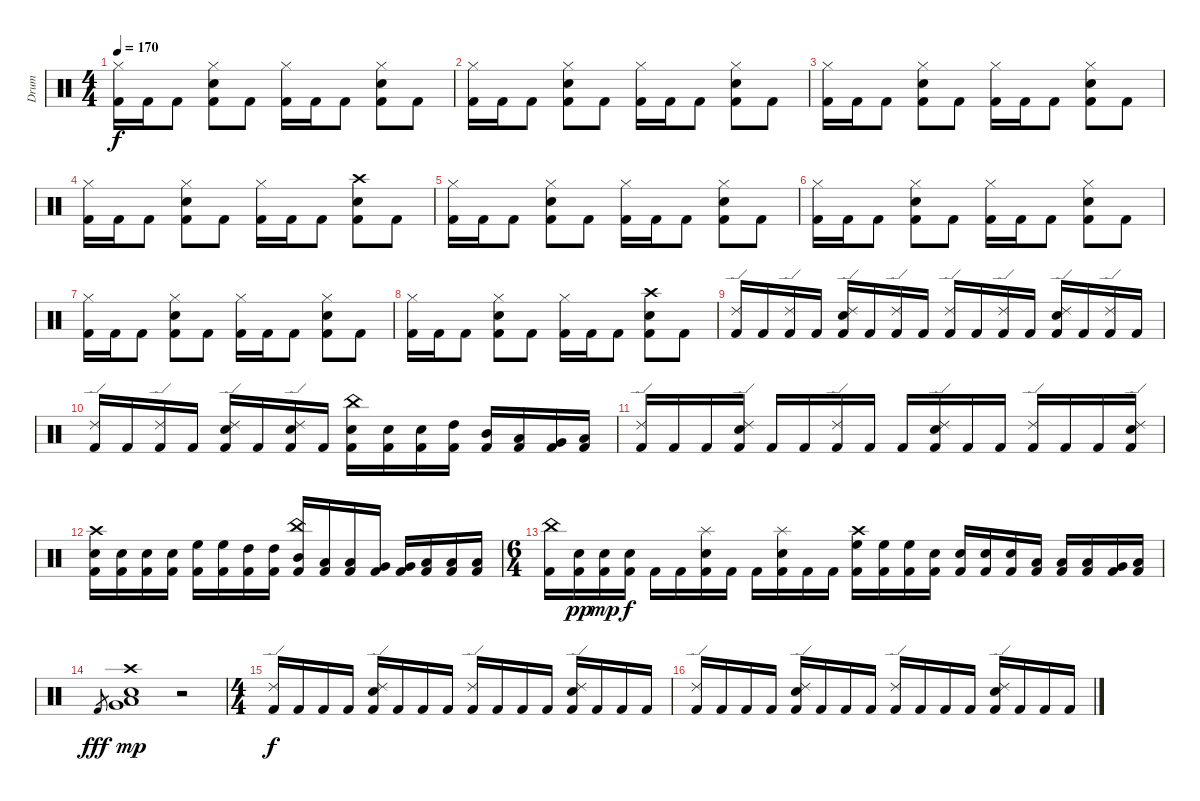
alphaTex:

\track ("Drum" "Drum") {instrument percussion}
\staff {score}
\articulation defaults
\ts (4 4)
\tempo 170
\clef neutral
\ks c
("Hi-Hat (closed)" "Kick (hit) 2").16{dy f} "Kick (hit) 2".16 "Kick (hit) 2".8 ("Hi-Hat (closed)" "Snare (hit) 2" "Kick (hit) 2").8 "Kick (hit) 2".8 ("Hi-Hat (closed)" "Kick (hit) 2").16 "Kick (hit) 2".16 "Kick (hit) 2".8 ("Hi-Hat (closed)" "Snare (hit) 2" "Kick (hit) 2").8 "Kick (hit) 2".8 |
("Hi-Hat (closed)" "Kick (hit) 2").16 "Kick (hit) 2".16 "Kick (hit) 2".8 ("Hi-Hat (closed)" "Snare (hit) 2" "Kick (hit) 2").8 "Kick (hit) 2".8 ("Hi-Hat (closed)" "Kick (hit) 2").16 "Kick (hit) 2".16 "Kick (hit) 2".8 ("Hi-Hat (closed)" "Snare (hit) 2" "Kick (hit) 2").8 "Kick (hit) 2".8 |
("Hi-Hat (closed)" "Kick (hit) 2").16 "Kick (hit) 2".16 "Kick (hit) 2".8 ("Hi-Hat (closed)" "Snare (hit) 2" "Kick (hit) 2").8 "Kick (hit) 2".8 ("Hi-Hat (closed)" "Kick (hit) 2").16 "Kick (hit) 2".16 "Kick (hit) 2".8 ("Hi-Hat (closed)" "Snare (hit) 2" "Kick (hit) 2").8 "Kick (hit) 2".8 |
("Hi-Hat (closed)" "Kick (hit) 2").16 "Kick (hit) 2".16 "Kick (hit) 2".8 ("Hi-Hat (closed)" "Snare (hit) 2" "Kick (hit) 2").8 "Kick (hit) 2".8 ("Hi-Hat (closed)" "Kick (hit) 2").16 "Kick (hit) 2".16 "Kick (hit) 2".8 ("Crash high (hit)" "Snare (hit) 2" "Kick (hit) 2").8 "Kick (hit) 2".8 |
("Hi-Hat (closed)" "Kick (hit) 2").16 "Kick (hit) 2".16 "Kick (hit) 2".8 ("Hi-Hat (closed)" "Snare (hit) 2" "Kick (hit) 2").8 "Kick (hit) 2".8 ("Hi-Hat (closed)" "Kick (hit) 2").16 "Kick (hit) 2".16 "Kick (hit) 2".8 ("Hi-Hat (closed)" "Snare (hit) 2" "Kick (hit) 2").8 "Kick (hit) 2".8 |
("Hi-Hat (closed)" "Kick (hit) 2").16 "Kick (hit) 2".16 "Kick (hit) 2".8 ("Hi-Hat (closed)" "Snare (hit) 2" "Kick (hit) 2").8 "Kick (hit) 2".8 ("Hi-Hat (closed)" "Kick (hit) 2").16 "Kick (hit) 2".16 "Kick (hit) 2".8 ("Hi-Hat (closed)" "Snare (hit) 2" "Kick (hit) 2").8 "Kick (hit) 2".8 |
("Hi-Hat (closed)" "Kick (hit) 2").16 "Kick (hit) 2".16 "Kick (hit) 2".8 ("Hi-Hat (closed)" "Snare (hit) 2" "Kick (hit) 2").8 "Kick (hit) 2".8 ("Hi-Hat (closed)" "Kick (hit) 2").16 "Kick (hit) 2".16 "Kick (hit) 2".8 ("Hi-Hat (closed)" "Snare (hit) 2" "Kick (hit) 2").8 "Kick (hit) 2".8 |
("Hi-Hat (closed)" "Kick (hit) 2").16 "Kick (hit) 2".16 "Kick (hit) 2".8 ("Hi-Hat (closed)" "Snare (hit) 2" "Kick (hit) 2").8 "Kick (hit) 2".8 ("Hi-Hat (closed)" "Kick (hit) 2").16 "Kick (hit) 2".16 "Kick (hit) 2".8 ("Crash high (hit)" "Snare (hit) 2" "Kick (hit) 2").8 "Kick (hit) 2".8 |
("Ride (edge) 2" "Kick (hit) 2").16 "Kick (hit) 2".16 ("Ride (edge) 2" "Kick (hit) 2").16 "Kick (hit) 2".16 ("Ride (edge) 2" "Snare (hit) 2" "Kick (hit) 2").16 "Kick (hit) 2".16 ("Ride (edge) 2" "Kick (hit) 2").16 "Kick (hit) 2".16 ("Ride (edge) 2" "Kick (hit) 2").16 "Kick (hit) 2".16 ("Ride (edge) 2" "Kick (hit) 2").16 "Kick (hit) 2".16 ("Ride (edge) 2" "Snare (hit) 2" "Kick (hit) 2").16 "Kick (hit) 2".16 ("Ride (edge) 2" "Kick (hit) 2").16 "Kick (hit) 2".16 |
("Ride (edge) 2" "Kick (hit) 2").16 "Kick (hit) 2".16 ("Ride (edge) 2" "Kick (hit) 2").16 "Kick (hit) 2".16 ("Ride (edge) 2" "Snare (hit) 2" "Kick (hit) 2").16 "Kick (hit) 2".16 ("Ride (edge) 2" "Snare (hit) 2" "Kick (hit) 2").16 "Kick (hit) 2".16 ("China (hit)" "Snare (hit) 2" "Kick (hit) 2").16 ("Snare (hit) 2" "Kick (hit) 2").16 ("Snare (hit) 2" "Kick (hit) 2").16 ("High Tom (hit)" "Kick (hit) 2").16 ("Mid Tom (hit)" "Kick (hit) 2").16 ("Low Tom (hit)" "Kick (hit) 2").16 ("Very Low Tom (hit)" "Kick (hit) 2").16 ("Low Floor Tom (hit)" "Kick (hit) 2").16 |
("Ride (edge) 2" "Kick (hit) 2").16 "Kick (hit) 2".16 "Kick (hit) 2".16 ("Ride (edge) 2" "Snare (hit) 2" "Kick (hit) 2").16 "Kick (hit) 2".16 "Kick (hit) 2".16 ("Ride (edge) 2" "Kick (hit) 2").16 "Kick (hit) 2".16 "Kick (hit) 2".16 ("Ride (edge) 2" "Snare (hit) 2" "Kick (hit) 2").16 "Kick (hit) 2".16 "Kick (hit) 2".16 ("Ride (edge) 2" "Kick (hit) 2").16 "Kick (hit) 2".16 "Kick (hit) 2".16 ("Ride (edge) 2" "Snare (hit) 2" "Kick (hit) 2").16 |
("Snare (hit) 2" "Crash high (hit)" "Kick (hit) 2").16 ("Snare (hit) 2" "Kick (hit) 2").16 ("Snare (hit) 2" "Kick (hit) 2").16 ("Snare (hit) 2" "Kick (hit) 2").16 ("High Floor Tom (hit)" "Kick (hit) 2").16 ("High Floor Tom (hit)" "Kick (hit) 2").16 ("High Tom (hit)" "Kick (hit) 2").16 ("High Tom (hit)" "Kick (hit) 2").16 ("Mid Tom (hit)" "China (hit)" "Kick (hit) 2").16 ("Low Tom (hit)" "Kick (hit) 2").16 ("Low Tom (hit)" "Kick (hit) 2").16 ("Very Low Tom (hit)" "Kick (hit) 2").16 ("Very Low Tom (hit)" "Kick (hit) 2").16 ("Low Floor Tom (hit)" "Kick (hit) 2").16 ("Low Floor Tom (hit)" "Kick (hit) 2").16 ("Low Floor Tom (hit)" "Kick (hit) 2").16 |
\ts (6 4)
("China (hit)" "Kick (hit) 2").16 ("Snare (hit) 2" "Kick (hit) 2").16{dy pp} ("Snare (hit) 2" "Kick (hit) 2").16{dy mp} ("Snare (hit) 2" "Kick (hit) 2").16{dy f} "Kick (hit) 2".16 "Kick (hit) 2".16 ("Snare (hit) 2" "Splash (hit)" "Kick (hit) 2").16 "Kick (hit) 2".16 "Kick (hit) 2".16 ("Snare (hit) 2" "Splash (hit)" "Kick (hit) 2").16 "Kick (hit) 2".16 "Kick (hit) 2".16 ("High Floor Tom (hit)" "Crash high (hit)" "Kick (hit) 2").16 ("High Floor Tom (hit)" "Kick (hit) 2").16 ("High Floor Tom (hit)" "Kick (hit) 2").16 ("Snare (hit) 2" "Kick (hit) 2").16 ("Snare (hit) 2" "Kick (hit) 2").16 ("Snare (hit) 2" "Kick (hit) 2").16 ("Snare (hit) 2" "Kick (hit) 2").16 ("Low Tom (hit)" "Kick (hit) 2").16 ("Low Tom (hit)" "Kick (hit) 2").16 ("Low Tom (hit)" "Kick (hit) 2").16 ("Very Low Tom (hit)" "Kick (hit) 2").16 ("Low Floor Tom (hit)" "Kick (hit) 2").16 |
"Kick (hit) 2".8{gr dy fff} ("Crash high (hit)" "Very Low Tom (hit)" "Low Floor Tom (hit)" "Snare (hit) 2").1{dy mp} r.2 |
\ts (4 4)
("Ride (edge) 2" "Kick (hit) 2").16{dy f} "Kick (hit) 2".16 "Kick (hit) 2".16 "Kick (hit) 2".16 ("Ride (edge) 2" "Snare (hit) 2" "Kick (hit) 2").16 "Kick (hit) 2".16 "Kick (hit) 2".16 "Kick (hit) 2".16 ("Ride (edge) 2" "Kick (hit) 2").16 "Kick (hit) 2".16 "Kick (hit) 2".16 "Kick (hit) 2".16 ("Ride (edge) 2" "Snare (hit) 2" "Kick (hit) 2").16 "Kick (hit) 2".16 "Kick (hit) 2".16 "Kick (hit) 2".16 |
("Ride (edge) 2" "Kick (hit) 2").16 "Kick (hit) 2".16 "Kick (hit) 2".16 "Kick (hit) 2".16 ("Ride (edge) 2" "Snare (hit) 2" "Kick (hit) 2").16 "Kick (hit) 2".16 "Kick (hit) 2".16 "Kick (hit) 2".16 ("Ride (edge) 2" "Kick (hit) 2").16 "Kick (hit) 2".16 "Kick (hit) 2".16 "Kick (hit) 2".16 ("Ride (edge) 2" "Snare (hit) 2" "Kick (hit) 2").16 "Kick (hit) 2".16 "Kick (hit) 2".16 "Kick (hit) 2".16
